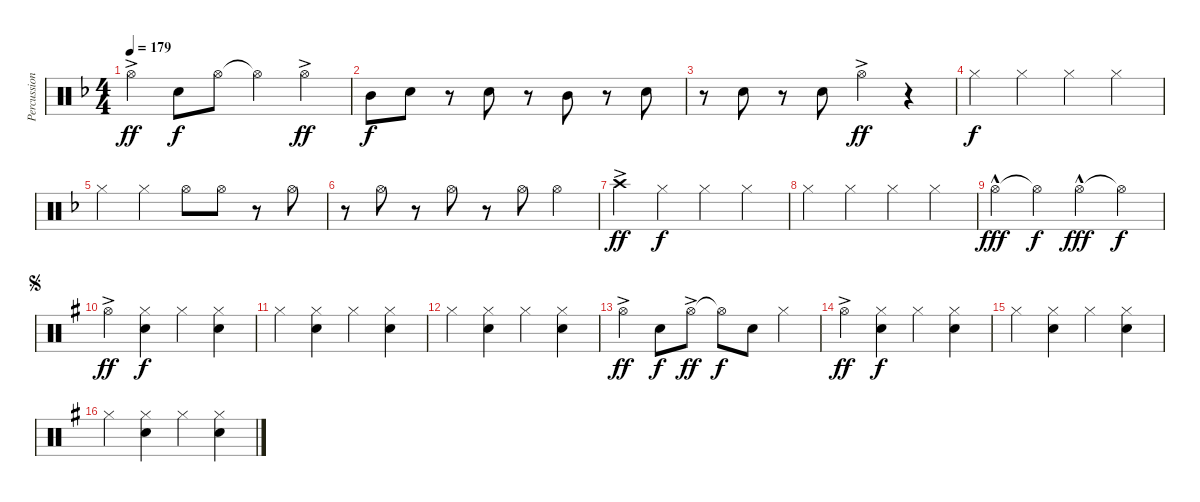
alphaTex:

\track ("Percussion 01" "Percussion") {instrument percussion}
\staff {score}
\articulation defaults
\ts (4 4)
\tempo 179
\clef neutral
\ks dminor "Hi-Hat (open)"{ac}.4{dy ff} "Snare (hit) 2".8{dy f} "Hi-Hat (open)".8 "Hi-Hat (open)"{t}.4 "Hi-Hat (open)"{ac}.4{dy ff}
|
"Mid Tom (hit)".8{dy f} "Snare (hit) 2".8 r.8 "Snare (hit) 2".8 r.8 "Mid Tom (hit)".8 r.8 "Snare (hit) 2".8 |
r.8 "Snare (hit) 2".8 r.8 "Snare (hit) 2".8 "Hi-Hat (open)"{ac}.4{dy ff} r.4 |
"Hi-Hat (closed)".4{dy f} "Hi-Hat (closed)".4 "Hi-Hat (closed)".4 "Hi-Hat (closed)".4 |
"Hi-Hat (closed)".4 "Hi-Hat (closed)".4 "Hi-Hat (open)".8 "Hi-Hat (open)".8 r.8 "Hi-Hat (open)".8 |
r.8 "Hi-Hat (open)".8 r.8 "Hi-Hat (open)".8 r.8 "Hi-Hat (open)".8 "Hi-Hat (open)".4 |
"Crash high (hit)"{ac}.4{dy ff} "Hi-Hat (closed)".4{dy f} "Hi-Hat (closed)".4 "Hi-Hat (closed)".4 |
"Hi-Hat (closed)".4 "Hi-Hat (closed)".4 "Hi-Hat (closed)".4 "Hi-Hat (closed)".4 |
"Hi-Hat (open)"{hac}.4{dy fff} "Hi-Hat (open)"{t}.4{dy f} "Hi-Hat (open)"{hac}.4{dy fff} "Hi-Hat (open)"{t}.4{dy f} |
\jump segno
\ks g "Hi-Hat (open)"{ac}.4{dy ff}
("Hi-Hat (closed)" "Snare (hit) 2").4{dy f} "Hi-Hat (closed)".4 ("Hi-Hat (closed)" "Snare (hit) 2").4 |
"Hi-Hat (closed)".4 ("Hi-Hat (closed)" "Snare (hit) 2").4 "Hi-Hat (closed)".4 ("Hi-Hat (closed)" "Snare (hit) 2").4 |
"Hi-Hat (closed)".4 ("Hi-Hat (closed)" "Snare (hit) 2").4 "Hi-Hat (closed)".4 ("Hi-Hat (closed)" "Snare (hit) 2").4 |
"Hi-Hat (open)"{ac}.4{dy ff} "Snare (hit) 2".8{dy f} "Hi-Hat (open)"{ac}.8{dy ff} "Hi-Hat (open)"{t}.8{dy f} "Snare (hit) 2".8 "Hi-Hat (closed)".4 |
"Hi-Hat (open)"{ac}.4{dy ff} ("Hi-Hat (closed)" "Snare (hit) 2").4{dy f} "Hi-Hat (closed)".4 ("Hi-Hat (closed)" "Snare (hit) 2").4 |
"Hi-Hat (closed)".4 ("Hi-Hat (closed)" "Snare (hit) 2").4 "Hi-Hat (closed)".4 ("Hi-Hat (closed)" "Snare (hit) 2").4 |
"Hi-Hat (closed)".4 ("Hi-Hat (closed)" "Snare (hit) 2").4 "Hi-Hat (closed)".4 ("Hi-Hat (closed)" "Snare (hit) 2").4
